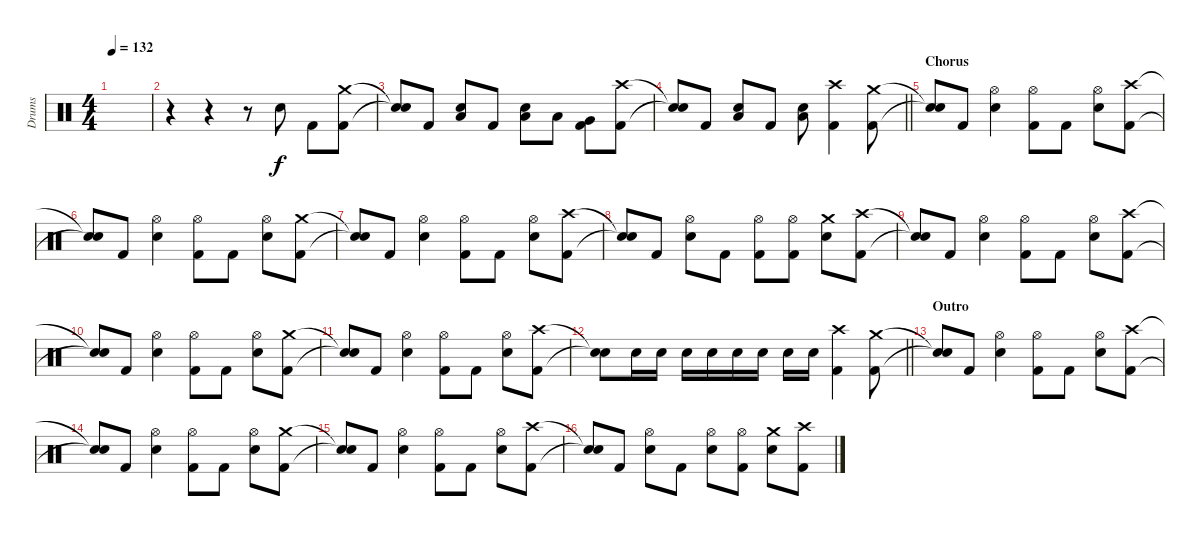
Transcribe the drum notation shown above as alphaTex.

\track ("Drums" "Drums") {instrument percussion}
\staff {score}
\articulation defaults
\ts (4 4)
\tempo 132
\clef neutral
\ks c
|
r.4 r.4 r.8 "Electric Snare (hit)".8 "Kick (hit) 2".8 ("Crash medium (hit)" "Kick (hit) 2").8 |
("Snare (hit)"{t} "Snare (hit)"{t}).8 "Kick (hit) 2".8 ("Low Floor Tom (hit)" "Electric Snare (hit)").8 "Kick (hit) 2".8 ("Low Floor Tom (hit)" "Electric Snare (hit)").8 "Low Tom (hit)".8 ("Very Low Tom (hit)" "Kick (hit) 2").8 ("Crash high (hit)" "Kick (hit) 2").8 |
\barLineRight lightlight
("Snare (hit)"{t} "Snare (hit)"{t}).8 "Kick (hit) 2".8 ("Low Floor Tom (hit)" "Electric Snare (hit)").8 "Kick (hit) 2".8 ("Low Floor Tom (hit)" "Electric Snare (hit)").8 ("Crash high (hit)" "Kick (hit) 2").4 ("Crash medium (hit)" "Kick (hit) 2").8 |
\section ("" "Chorus")
("Snare (hit)"{t} "Snare (hit)"{t}).8 "Kick (hit) 2".8 ("Hi-Hat (open)" "Electric Snare (hit)").4 ("Hi-Hat (open)" "Kick (hit) 2").8 "Kick (hit) 2".8 ("Hi-Hat (open)" "Electric Snare (hit)").8 ("Crash high (hit)" "Kick (hit) 2").8 |
("Snare (hit)"{t} "Snare (hit)"{t}).8 "Kick (hit) 2".8 ("Hi-Hat (open)" "Electric Snare (hit)").4 ("Hi-Hat (open)" "Kick (hit) 2").8 "Kick (hit) 2".8 ("Hi-Hat (open)" "Electric Snare (hit)").8 ("Crash medium (hit)" "Kick (hit) 2").8 |
("Snare (hit)"{t} "Snare (hit)"{t}).8 "Kick (hit) 2".8 ("Hi-Hat (open)" "Electric Snare (hit)").4 ("Hi-Hat (open)" "Kick (hit) 2").8 "Kick (hit) 2".8 ("Hi-Hat (open)" "Electric Snare (hit)").8 ("Crash high (hit)" "Kick (hit) 2").8 |
("Snare (hit)"{t} "Snare (hit)"{t}).8 "Kick (hit) 2".8 ("Hi-Hat (open)" "Electric Snare (hit)").8 "Kick (hit) 2".8 ("Hi-Hat (open)" "Kick (hit) 2").8 ("Hi-Hat (open)" "Kick (hit) 2").8 ("Crash medium (hit)" "Electric Snare (hit)").8 ("Crash high (hit)" "Kick (hit) 2").8 |
("Snare (hit)"{t} "Snare (hit)"{t}).8 "Kick (hit) 2".8 ("Hi-Hat (open)" "Electric Snare (hit)").4 ("Hi-Hat (open)" "Kick (hit) 2").8 "Kick (hit) 2".8 ("Hi-Hat (open)" "Electric Snare (hit)").8 ("Crash high (hit)" "Kick (hit) 2").8 |
("Snare (hit)"{t} "Snare (hit)"{t}).8 "Kick (hit) 2".8 ("Hi-Hat (open)" "Electric Snare (hit)").4 ("Hi-Hat (open)" "Kick (hit) 2").8 "Kick (hit) 2".8 ("Hi-Hat (open)" "Electric Snare (hit)").8 ("Crash medium (hit)" "Kick (hit) 2").8 |
("Snare (hit)"{t} "Snare (hit)"{t}).8 "Kick (hit) 2".8 ("Hi-Hat (open)" "Electric Snare (hit)").4 ("Hi-Hat (open)" "Kick (hit) 2").8 "Kick (hit) 2".8 ("Hi-Hat (open)" "Electric Snare (hit)").8 ("Crash high (hit)" "Kick (hit) 2").8 |
\barLineRight lightlight
("Snare (hit)"{t} "Snare (hit)"{t}).8 "Electric Snare (hit)".16 "Electric Snare (hit)".16 "Electric Snare (hit)".16 "Electric Snare (hit)".16 "Electric Snare (hit)".16 "Electric Snare (hit)".16 "Electric Snare (hit)".16 "Electric Snare (hit)".16 ("Crash high (hit)" "Kick (hit) 2").4 ("Crash medium (hit)" "Kick (hit) 2").8 |
\section ("" "Outro")
("Snare (hit)"{t} "Snare (hit)"{t}).8 "Kick (hit) 2".8 ("Hi-Hat (open)" "Electric Snare (hit)").4 ("Hi-Hat (open)" "Kick (hit) 2").8 "Kick (hit) 2".8 ("Hi-Hat (open)" "Electric Snare (hit)").8 ("Crash high (hit)" "Kick (hit) 2").8 |
("Snare (hit)"{t} "Snare (hit)"{t}).8 "Kick (hit) 2".8 ("Hi-Hat (open)" "Electric Snare (hit)").4 ("Hi-Hat (open)" "Kick (hit) 2").8 "Kick (hit) 2".8 ("Hi-Hat (open)" "Electric Snare (hit)").8 ("Crash medium (hit)" "Kick (hit) 2").8 |
("Snare (hit)"{t} "Snare (hit)"{t}).8 "Kick (hit) 2".8 ("Hi-Hat (open)" "Electric Snare (hit)").4 ("Hi-Hat (open)" "Kick (hit) 2").8 "Kick (hit) 2".8 ("Hi-Hat (open)" "Electric Snare (hit)").8 ("Crash high (hit)" "Kick (hit) 2").8 |
("Snare (hit)"{t} "Snare (hit)"{t}).8 "Kick (hit) 2".8 ("Hi-Hat (open)" "Electric Snare (hit)").8 "Kick (hit) 2".8 ("Hi-Hat (open)" "Electric Snare (hit)").8 ("Hi-Hat (open)" "Kick (hit) 2").8 ("Crash medium (hit)" "Electric Snare (hit)").8 ("Crash high (hit)" "Kick (hit) 2").8
